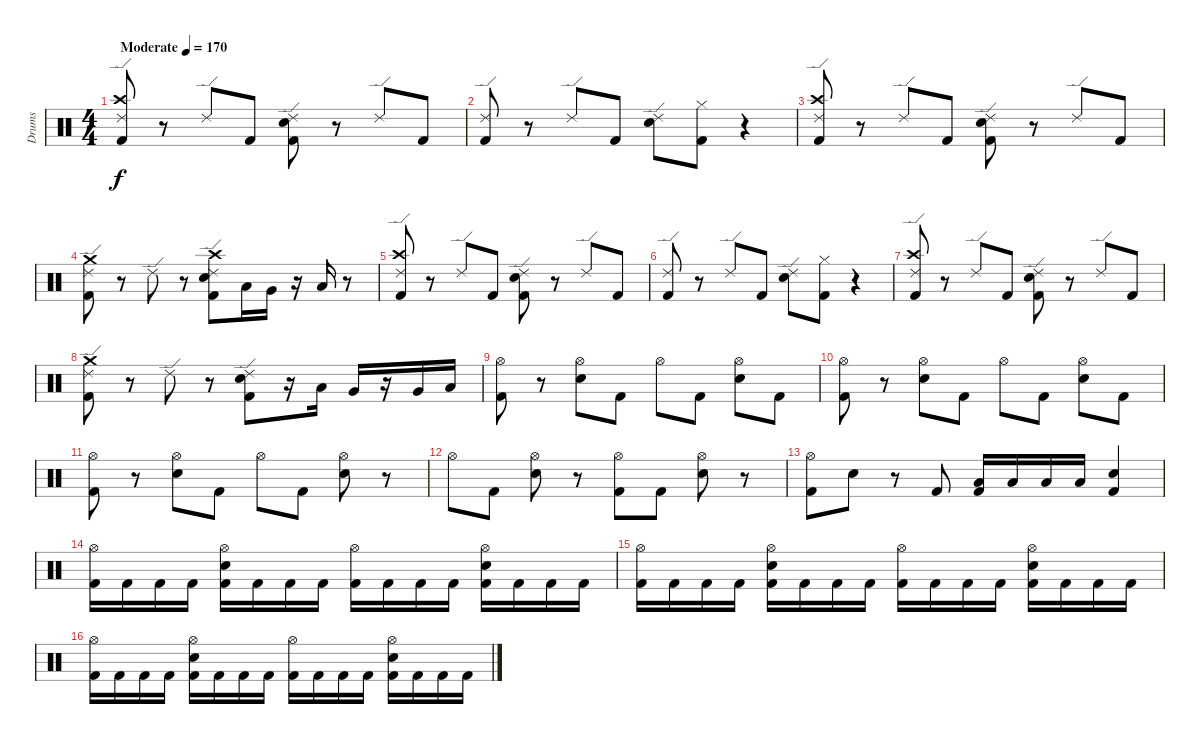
\track ("Drums" "Drums") {instrument percussion}
\staff {score}
\articulation defaults
\ts (4 4)
\tempo (170 "Moderate")
\clef neutral
\ks c
("Ride (edge) 2" "Crash high (hit)" "Kick (hit) 2").8{dy f} r.8 "Ride (edge) 2".8 "Kick (hit) 2".8 ("Ride (edge) 2" "Electric Snare (hit)" "Kick (hit) 2").8 r.8 "Ride (edge) 2".8 "Kick (hit) 2".8 |
("Ride (edge) 2" "Kick (hit) 2").8 r.8 "Ride (edge) 2".8 "Kick (hit) 2".8 ("Ride (edge) 2" "Electric Snare (hit)").8 ("Hi-Hat (closed)" "Kick (hit) 2").8 r.4 |
("Ride (edge) 2" "Crash high (hit)" "Kick (hit) 2").8 r.8 "Ride (edge) 2".8 "Kick (hit) 2".8 ("Ride (edge) 2" "Electric Snare (hit)" "Kick (hit) 2").8 r.8 "Ride (edge) 2".8 "Kick (hit) 2".8 |
("Ride (edge) 2" "Crash medium (hit)" "Kick (hit) 2").8 r.8 "Ride (edge) 2".8 r.8 ("Ride (edge) 2" "Crash high (hit)" "Electric Snare (hit)" "Kick (hit) 2").8 "Low Tom (hit)".16 "Very Low Tom (hit)".16 r.16 "Low Floor Tom (hit)".16 r.8 |
("Ride (edge) 2" "Crash high (hit)" "Kick (hit) 2").8 r.8 "Ride (edge) 2".8 "Kick (hit) 2".8 ("Ride (edge) 2" "Electric Snare (hit)" "Kick (hit) 2").8 r.8 "Ride (edge) 2".8 "Kick (hit) 2".8 |
("Ride (edge) 2" "Kick (hit) 2").8 r.8 "Ride (edge) 2".8 "Kick (hit) 2".8 ("Ride (edge) 2" "Electric Snare (hit)").8 ("Hi-Hat (closed)" "Kick (hit) 2").8 r.4 |
("Ride (edge) 2" "Crash high (hit)" "Kick (hit) 2").8 r.8 "Ride (edge) 2".8 "Kick (hit) 2".8 ("Ride (edge) 2" "Electric Snare (hit)" "Kick (hit) 2").8 r.8 "Ride (edge) 2".8 "Kick (hit) 2".8 |
("Ride (edge) 2" "Crash medium (hit)" "Kick (hit) 2").8 r.8 "Ride (edge) 2".8 r.8 ("Ride (edge) 2" "Electric Snare (hit)" "Kick (hit) 2").8 r.16 "Low Tom (hit)".16 "Very Low Tom (hit)".16 r.16 "Very Low Tom (hit)".16 "Low Floor Tom (hit)".16 |
("Hi-Hat (open)" "Kick (hit) 2").8 r.8 ("Hi-Hat (open)" "Electric Snare (hit)").8 "Kick (hit) 2".8 "Hi-Hat (open)".8 "Kick (hit) 2".8 ("Hi-Hat (open)" "Electric Snare (hit)").8 "Kick (hit) 2".8 |
("Hi-Hat (open)" "Kick (hit) 2").8 r.8 ("Hi-Hat (open)" "Electric Snare (hit)").8 "Kick (hit) 2".8 "Hi-Hat (open)".8 "Kick (hit) 2".8 ("Hi-Hat (open)" "Electric Snare (hit)").8 "Kick (hit) 2".8 |
("Hi-Hat (open)" "Kick (hit) 2").8 r.8 ("Hi-Hat (open)" "Electric Snare (hit)").8 "Kick (hit) 2".8 "Hi-Hat (open)".8 "Kick (hit) 2".8 ("Hi-Hat (open)" "Electric Snare (hit)").8 r.8 |
"Hi-Hat (open)".8 "Kick (hit) 2".8 ("Hi-Hat (open)" "Electric Snare (hit)").8 r.8 ("Hi-Hat (open)" "Kick (hit) 2").8 "Kick (hit) 2".8 ("Hi-Hat (open)" "Electric Snare (hit)").8 r.8 |
("Hi-Hat (open)" "Kick (hit) 2").8 "Electric Snare (hit)".8 r.8 "Kick (hit) 2".8 ("Low Floor Tom (hit)" "Kick (hit) 2").16 "Low Floor Tom (hit)".16 "Low Floor Tom (hit)".16 "Low Floor Tom (hit)".16 ("Electric Snare (hit)" "Kick (hit) 2").4 |
("Hi-Hat (open)" "Kick (hit) 2").16 "Kick (hit) 2".16 "Kick (hit) 2".16 "Kick (hit) 2".16 ("Hi-Hat (open)" "Electric Snare (hit)" "Kick (hit) 2").16 "Kick (hit) 2".16 "Kick (hit) 2".16 "Kick (hit) 2".16 ("Hi-Hat (open)" "Kick (hit) 2").16 "Kick (hit) 2".16 "Kick (hit) 2".16 "Kick (hit) 2".16 ("Hi-Hat (open)" "Electric Snare (hit)" "Kick (hit) 2").16 "Kick (hit) 2".16 "Kick (hit) 2".16 "Kick (hit) 2".16 |
("Hi-Hat (open)" "Kick (hit) 2").16 "Kick (hit) 2".16 "Kick (hit) 2".16 "Kick (hit) 2".16 ("Hi-Hat (open)" "Electric Snare (hit)" "Kick (hit) 2").16 "Kick (hit) 2".16 "Kick (hit) 2".16 "Kick (hit) 2".16 ("Hi-Hat (open)" "Kick (hit) 2").16 "Kick (hit) 2".16 "Kick (hit) 2".16 "Kick (hit) 2".16 ("Hi-Hat (open)" "Electric Snare (hit)" "Kick (hit) 2").16 "Kick (hit) 2".16 "Kick (hit) 2".16 "Kick (hit) 2".16 |
("Hi-Hat (open)" "Kick (hit) 2").16 "Kick (hit) 2".16 "Kick (hit) 2".16 "Kick (hit) 2".16 ("Hi-Hat (open)" "Electric Snare (hit)" "Kick (hit) 2").16 "Kick (hit) 2".16 "Kick (hit) 2".16 "Kick (hit) 2".16 ("Hi-Hat (open)" "Kick (hit) 2").16 "Kick (hit) 2".16 "Kick (hit) 2".16 "Kick (hit) 2".16 ("Hi-Hat (open)" "Electric Snare (hit)" "Kick (hit) 2").16 "Kick (hit) 2".16 "Kick (hit) 2".16 "Kick (hit) 2".16
